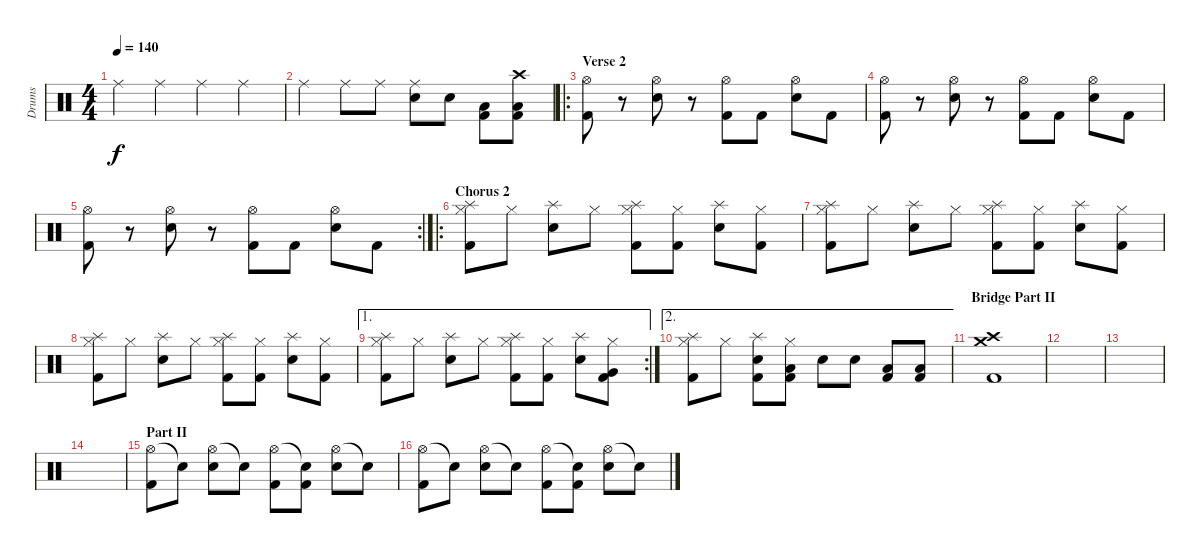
\track ("Drums" "Drums") {instrument percussion}
\staff {score}
\articulation defaults
\ts (4 4)
\tempo 140
\clef neutral
\ks c "Ride (middle)".4{dy f} "Ride (middle)".4 "Ride (middle)".4 "Ride (middle)".4
|
"Ride (middle)".4 "Ride (middle)".8 "Ride (middle)".8 ("Ride (middle)" "Snare (hit) 2").8 "Snare (hit) 2".8 ("Low Tom (hit)" "Kick (hit) 2").8 ("Crash high (hit)" "Low Tom (hit)" "Kick (hit) 2").8 |
\ro
\section ("" "Verse 2")
("Hi-Hat (open)" "Kick (hit) 2").8 r.8 ("Hi-Hat (open)" "Snare (hit) 2").8 r.8 ("Hi-Hat (open)" "Kick (hit) 2").8 "Kick (hit) 2".8 ("Hi-Hat (open)" "Snare (hit) 2").8 "Kick (hit) 2".8 |
("Hi-Hat (open)" "Kick (hit) 2").8 r.8 ("Hi-Hat (open)" "Snare (hit) 2").8 r.8 ("Hi-Hat (open)" "Kick (hit) 2").8 "Kick (hit) 2".8 ("Hi-Hat (open)" "Snare (hit) 2").8 "Kick (hit) 2".8 |
\rc 2
("Hi-Hat (open)" "Kick (hit) 2").8 r.8 ("Hi-Hat (open)" "Snare (hit) 2").8 r.8 ("Hi-Hat (open)" "Kick (hit) 2").8 "Kick (hit) 2".8 ("Hi-Hat (open)" "Snare (hit) 2").8 "Kick (hit) 2".8 |
\ro
\section ("" "Chorus 2")
("Splash (hit)" "Hi-Hat (closed)" "Kick (hit) 2").8 "Hi-Hat (closed)".8 ("Splash (hit)" "Snare (hit) 2").8 "Hi-Hat (closed)".8 ("Splash (hit)" "Hi-Hat (closed)" "Kick (hit) 2").8 ("Hi-Hat (closed)" "Kick (hit) 2").8 ("Splash (hit)" "Snare (hit) 2").8 ("Hi-Hat (closed)" "Kick (hit) 2").8 |
("Splash (hit)" "Hi-Hat (closed)" "Kick (hit) 2").8 "Hi-Hat (closed)".8 ("Splash (hit)" "Snare (hit) 2").8 "Hi-Hat (closed)".8 ("Splash (hit)" "Hi-Hat (closed)" "Kick (hit) 2").8 ("Hi-Hat (closed)" "Kick (hit) 2").8 ("Splash (hit)" "Snare (hit) 2").8 ("Hi-Hat (closed)" "Kick (hit) 2").8 |
("Splash (hit)" "Hi-Hat (closed)" "Kick (hit) 2").8 "Hi-Hat (closed)".8 ("Splash (hit)" "Snare (hit) 2").8 "Hi-Hat (closed)".8 ("Splash (hit)" "Hi-Hat (closed)" "Kick (hit) 2").8 ("Hi-Hat (closed)" "Kick (hit) 2").8 ("Splash (hit)" "Snare (hit) 2").8 ("Hi-Hat (closed)" "Kick (hit) 2").8 |
\ae 1
\rc 2
("Splash (hit)" "Hi-Hat (closed)" "Kick (hit) 2").8 "Hi-Hat (closed)".8 ("Splash (hit)" "Snare (hit) 2").8 "Hi-Hat (closed)".8 ("Splash (hit)" "Hi-Hat (closed)" "Kick (hit) 2").8 ("Hi-Hat (closed)" "Kick (hit) 2").8 ("Splash (hit)" "Snare (hit) 2").8 ("Hi-Hat (closed)" "Very Low Tom (hit)" "Kick (hit) 2").8 |
\ae 2
("Splash (hit)" "Hi-Hat (closed)" "Kick (hit) 2").8 "Hi-Hat (closed)".8 ("Splash (hit)" "Snare (hit) 2" "Kick (hit) 2").8 ("Hi-Hat (closed)" "Low Tom (hit)" "Kick (hit) 2").8 "Snare (hit) 2".8 "Snare (hit) 2".8 ("Low Tom (hit)" "Kick (hit) 2").8 ("Low Tom (hit)" "Kick (hit) 2").8 |
\section ("" "Bridge Part II")
("Crash high (hit)" "Crash medium (hit)" "Kick (hit) 2").1 |
|
|
|
\section ("" "Part II")
("Hi-Hat (open)" "Kick (hit) 2").8 "Snare (hit)"{t}.8 ("Hi-Hat (open)" "Snare (hit) 2").8 "Snare (hit)"{t}.8 ("Hi-Hat (open)" "Kick (hit) 2").8 ("Snare (hit)"{t} "Kick (hit) 2").8 ("Hi-Hat (open)" "Snare (hit) 2").8 "Snare (hit)"{t}.8 |
("Hi-Hat (open)" "Kick (hit) 2").8 "Snare (hit)"{t}.8 ("Hi-Hat (open)" "Snare (hit) 2").8 "Snare (hit)"{t}.8 ("Hi-Hat (open)" "Kick (hit) 2").8 ("Snare (hit)"{t} "Kick (hit) 2").8 ("Hi-Hat (open)" "Snare (hit) 2").8 "Snare (hit)"{t}.8
